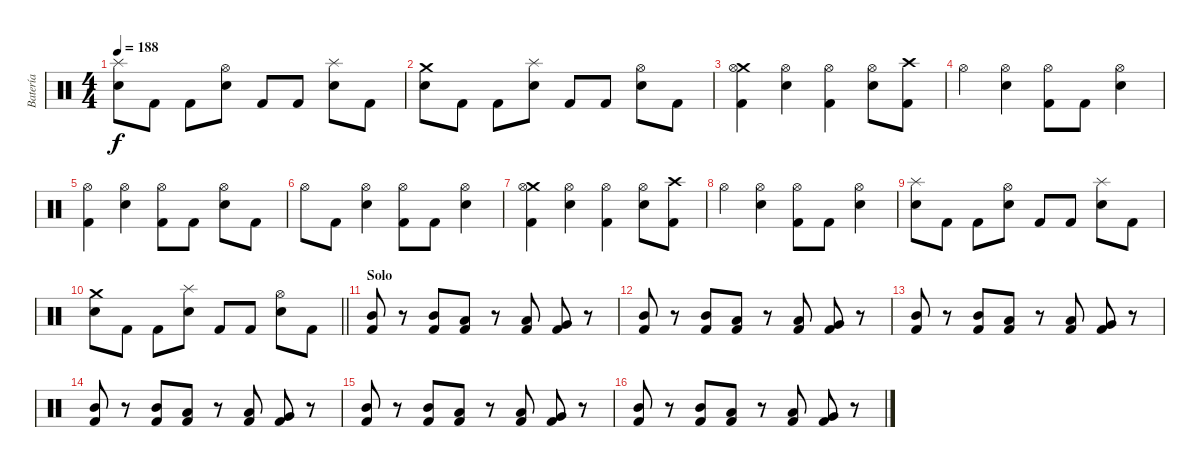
\track ("Batería" "Batería") {instrument percussion}
\staff {score}
\articulation defaults
\ts (4 4)
\tempo 188
\clef neutral
\ks c
("Splash (hit)" "Electric Snare (hit)").8{dy f} "Kick (hit) 2".8 "Kick (hit) 2".8 ("Hi-Hat (open)" "Electric Snare (hit)").8 "Kick (hit) 2".8 "Kick (hit) 2".8 ("Splash (hit)" "Electric Snare (hit)").8 "Kick (hit) 2".8 |
("Crash medium (hit)" "Electric Snare (hit)").8 "Kick (hit) 2".8 "Kick (hit) 2".8 ("Splash (hit)" "Electric Snare (hit)").8 "Kick (hit) 2".8 "Kick (hit) 2".8 ("Hi-Hat (open)" "Electric Snare (hit)").8 "Kick (hit) 2".8 |
("Crash medium (hit)" "Hi-Hat (open)" "Kick (hit) 2").4 ("Hi-Hat (open)" "Electric Snare (hit)").4 ("Hi-Hat (open)" "Kick (hit) 2").4 ("Hi-Hat (open)" "Electric Snare (hit)").8 ("Crash high (hit)" "Kick (hit) 2").8 |
"Hi-Hat (open)".4 ("Hi-Hat (open)" "Electric Snare (hit)").4 ("Hi-Hat (open)" "Kick (hit) 2").8 "Kick (hit) 2".8 ("Hi-Hat (open)" "Electric Snare (hit)").4 |
("Hi-Hat (open)" "Kick (hit) 2").4 ("Hi-Hat (open)" "Electric Snare (hit)").4 ("Hi-Hat (open)" "Kick (hit) 2").8 "Kick (hit) 2".8 ("Hi-Hat (open)" "Electric Snare (hit)").8 "Kick (hit) 2".8 |
"Hi-Hat (open)".8 "Kick (hit) 2".8 ("Hi-Hat (open)" "Electric Snare (hit)").4 ("Hi-Hat (open)" "Kick (hit) 2").8 "Kick (hit) 2".8 ("Hi-Hat (open)" "Electric Snare (hit)").4 |
("Crash medium (hit)" "Hi-Hat (open)" "Kick (hit) 2").4 ("Hi-Hat (open)" "Electric Snare (hit)").4 ("Hi-Hat (open)" "Kick (hit) 2").4 ("Hi-Hat (open)" "Electric Snare (hit)").8 ("Crash high (hit)" "Kick (hit) 2").8 |
"Hi-Hat (open)".4 ("Hi-Hat (open)" "Electric Snare (hit)").4 ("Hi-Hat (open)" "Kick (hit) 2").8 "Kick (hit) 2".8 ("Hi-Hat (open)" "Electric Snare (hit)").4 |
("Splash (hit)" "Electric Snare (hit)").8 "Kick (hit) 2".8 "Kick (hit) 2".8 ("Hi-Hat (open)" "Electric Snare (hit)").8 "Kick (hit) 2".8 "Kick (hit) 2".8 ("Splash (hit)" "Electric Snare (hit)").8 "Kick (hit) 2".8 |
\barLineRight lightlight
("Crash medium (hit)" "Electric Snare (hit)").8 "Kick (hit) 2".8 "Kick (hit) 2".8 ("Splash (hit)" "Electric Snare (hit)").8 "Kick (hit) 2".8 "Kick (hit) 2".8 ("Hi-Hat (open)" "Electric Snare (hit)").8 "Kick (hit) 2".8 |
\section ("" "Solo")
("Mid Tom (hit)" "Kick (hit) 2").8 r.8 ("Mid Tom (hit)" "Kick (hit) 2").8 ("Low Tom (hit)" "Kick (hit) 2").8 r.8 ("Low Tom (hit)" "Kick (hit) 2").8 ("Very Low Tom (hit)" "Kick (hit) 2").8 r.8 |
("Mid Tom (hit)" "Kick (hit) 2").8 r.8 ("Mid Tom (hit)" "Kick (hit) 2").8 ("Low Tom (hit)" "Kick (hit) 2").8 r.8 ("Low Tom (hit)" "Kick (hit) 2").8 ("Very Low Tom (hit)" "Kick (hit) 2").8 r.8 |
("Mid Tom (hit)" "Kick (hit) 2").8 r.8 ("Mid Tom (hit)" "Kick (hit) 2").8 ("Low Tom (hit)" "Kick (hit) 2").8 r.8 ("Low Tom (hit)" "Kick (hit) 2").8 ("Very Low Tom (hit)" "Kick (hit) 2").8 r.8 |
("Mid Tom (hit)" "Kick (hit) 2").8 r.8 ("Mid Tom (hit)" "Kick (hit) 2").8 ("Low Tom (hit)" "Kick (hit) 2").8 r.8 ("Low Tom (hit)" "Kick (hit) 2").8 ("Very Low Tom (hit)" "Kick (hit) 2").8 r.8 |
("Mid Tom (hit)" "Kick (hit) 2").8 r.8 ("Mid Tom (hit)" "Kick (hit) 2").8 ("Low Tom (hit)" "Kick (hit) 2").8 r.8 ("Low Tom (hit)" "Kick (hit) 2").8 ("Very Low Tom (hit)" "Kick (hit) 2").8 r.8 |
("Mid Tom (hit)" "Kick (hit) 2").8 r.8 ("Mid Tom (hit)" "Kick (hit) 2").8 ("Low Tom (hit)" "Kick (hit) 2").8 r.8 ("Low Tom (hit)" "Kick (hit) 2").8 ("Very Low Tom (hit)" "Kick (hit) 2").8 r.8
